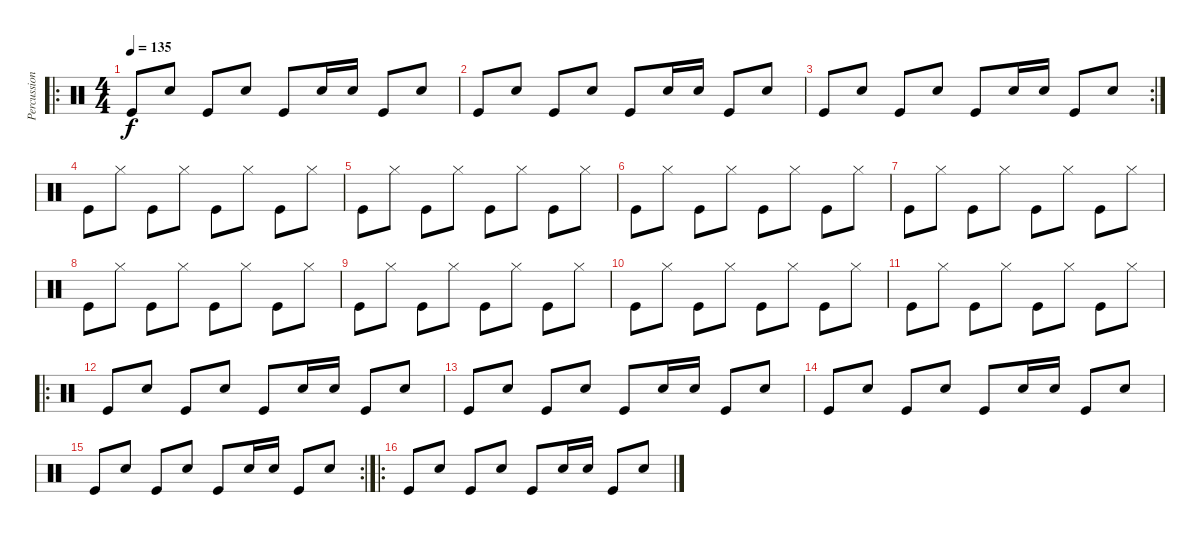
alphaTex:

\track ("Percussions" "Percussion") {instrument percussion}
\staff {score}
\articulation defaults
\ro
\ts (4 4)
\tempo 135
\clef neutral
\ks c "Kick (hit)".8{dy f} "Snare (hit) 2".8 "Kick (hit)".8 "Snare (hit) 2".8 "Kick (hit)".8 "Snare (hit) 2".16 "Snare (hit) 2".16 "Kick (hit)".8 "Snare (hit) 2".8
|
"Kick (hit)".8 "Snare (hit) 2".8 "Kick (hit)".8 "Snare (hit) 2".8 "Kick (hit)".8 "Snare (hit) 2".16 "Snare (hit) 2".16 "Kick (hit)".8 "Snare (hit) 2".8 |
\rc 2 "Kick (hit)".8 "Snare (hit) 2".8 "Kick (hit)".8 "Snare (hit) 2".8 "Kick (hit)".8 "Snare (hit) 2".16 "Snare (hit) 2".16 "Kick (hit)".8 "Snare (hit) 2".8
|
"Kick (hit)".8 "Hi-Hat (closed)".8 "Kick (hit)".8 "Hi-Hat (closed)".8 "Kick (hit)".8 "Hi-Hat (closed)".8 "Kick (hit)".8 "Hi-Hat (closed)".8 |
"Kick (hit)".8 "Hi-Hat (closed)".8 "Kick (hit)".8 "Hi-Hat (closed)".8 "Kick (hit)".8 "Hi-Hat (closed)".8 "Kick (hit)".8 "Hi-Hat (closed)".8 |
"Kick (hit)".8 "Hi-Hat (closed)".8 "Kick (hit)".8 "Hi-Hat (closed)".8 "Kick (hit)".8 "Hi-Hat (closed)".8 "Kick (hit)".8 "Hi-Hat (closed)".8 |
"Kick (hit)".8 "Hi-Hat (closed)".8 "Kick (hit)".8 "Hi-Hat (closed)".8 "Kick (hit)".8 "Hi-Hat (closed)".8 "Kick (hit)".8 "Hi-Hat (closed)".8 |
"Kick (hit)".8 "Hi-Hat (closed)".8 "Kick (hit)".8 "Hi-Hat (closed)".8 "Kick (hit)".8 "Hi-Hat (closed)".8 "Kick (hit)".8 "Hi-Hat (closed)".8 |
"Kick (hit)".8 "Hi-Hat (closed)".8 "Kick (hit)".8 "Hi-Hat (closed)".8 "Kick (hit)".8 "Hi-Hat (closed)".8 "Kick (hit)".8 "Hi-Hat (closed)".8 |
"Kick (hit)".8 "Hi-Hat (closed)".8 "Kick (hit)".8 "Hi-Hat (closed)".8 "Kick (hit)".8 "Hi-Hat (closed)".8 "Kick (hit)".8 "Hi-Hat (closed)".8 |
"Kick (hit)".8 "Hi-Hat (closed)".8 "Kick (hit)".8 "Hi-Hat (closed)".8 "Kick (hit)".8 "Hi-Hat (closed)".8 "Kick (hit)".8 "Hi-Hat (closed)".8 |
\ro "Kick (hit)".8 "Snare (hit) 2".8 "Kick (hit)".8 "Snare (hit) 2".8 "Kick (hit)".8 "Snare (hit) 2".16 "Snare (hit) 2".16 "Kick (hit)".8 "Snare (hit) 2".8
|
"Kick (hit)".8 "Snare (hit) 2".8 "Kick (hit)".8 "Snare (hit) 2".8 "Kick (hit)".8 "Snare (hit) 2".16 "Snare (hit) 2".16 "Kick (hit)".8 "Snare (hit) 2".8 |
"Kick (hit)".8 "Snare (hit) 2".8 "Kick (hit)".8 "Snare (hit) 2".8 "Kick (hit)".8 "Snare (hit) 2".16 "Snare (hit) 2".16 "Kick (hit)".8 "Snare (hit) 2".8 |
\rc 2 "Kick (hit)".8 "Snare (hit) 2".8 "Kick (hit)".8 "Snare (hit) 2".8 "Kick (hit)".8 "Snare (hit) 2".16 "Snare (hit) 2".16 "Kick (hit)".8 "Snare (hit) 2".8
|
\ro "Kick (hit)".8 "Snare (hit) 2".8 "Kick (hit)".8 "Snare (hit) 2".8 "Kick (hit)".8 "Snare (hit) 2".16 "Snare (hit) 2".16 "Kick (hit)".8 "Snare (hit) 2".8
